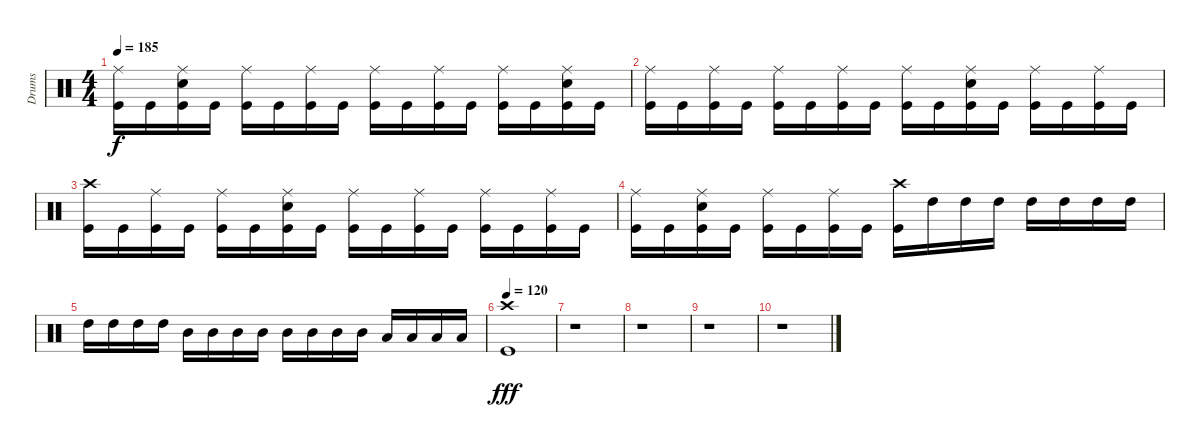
\track ("Drums" "Drums") {instrument percussion}
\staff {score}
\articulation defaults
\ts (4 4)
\tempo 185
\clef neutral
\ks c
("Ride (middle)" "Kick (hit)").16{dy f} "Kick (hit)".16 ("Ride (middle)" "Electric Snare (hit)" "Kick (hit)").16 "Kick (hit)".16 ("Ride (middle)" "Kick (hit)").16 "Kick (hit)".16 ("Ride (middle)" "Kick (hit)").16 "Kick (hit)".16 ("Ride (middle)" "Kick (hit)").16 "Kick (hit)".16 ("Ride (middle)" "Kick (hit)").16 "Kick (hit)".16 ("Ride (middle)" "Kick (hit)").16 "Kick (hit)".16 ("Ride (middle)" "Electric Snare (hit)" "Kick (hit)").16 "Kick (hit)".16 |
("Ride (middle)" "Kick (hit)").16 "Kick (hit)".16 ("Ride (middle)" "Kick (hit)").16 "Kick (hit)".16 ("Ride (middle)" "Kick (hit)").16 "Kick (hit)".16 ("Ride (middle)" "Kick (hit)").16 "Kick (hit)".16 ("Ride (middle)" "Kick (hit)").16 "Kick (hit)".16 ("Ride (middle)" "Electric Snare (hit)" "Kick (hit)").16 "Kick (hit)".16 ("Ride (middle)" "Kick (hit)").16 "Kick (hit)".16 ("Ride (middle)" "Kick (hit)").16 "Kick (hit)".16 |
("Crash high (hit)" "Kick (hit)").16 "Kick (hit)".16 ("Ride (middle)" "Kick (hit)").16 "Kick (hit)".16 ("Ride (middle)" "Kick (hit)").16 "Kick (hit)".16 ("Ride (middle)" "Electric Snare (hit)" "Kick (hit)").16 "Kick (hit)".16 ("Ride (middle)" "Kick (hit)").16 "Kick (hit)".16 ("Ride (middle)" "Kick (hit)").16 "Kick (hit)".16 ("Ride (middle)" "Kick (hit)").16 "Kick (hit)".16 ("Ride (middle)" "Kick (hit)").16 "Kick (hit)".16 |
("Ride (middle)" "Kick (hit)").16 "Kick (hit)".16 ("Ride (middle)" "Electric Snare (hit)" "Kick (hit)").16 "Kick (hit)".16 ("Ride (middle)" "Kick (hit)").16 "Kick (hit)".16 ("Ride (middle)" "Kick (hit)").16 "Kick (hit)".16 ("Crash high (hit)" "Kick (hit)").16 "High Tom (hit)".16 "High Tom (hit)".16 "High Tom (hit)".16 "High Tom (hit)".16 "High Tom (hit)".16 "High Tom (hit)".16 "High Tom (hit)".16 |
"High Tom (hit)".16 "High Tom (hit)".16 "High Tom (hit)".16 "High Tom (hit)".16 "Mid Tom (hit)".16 "Mid Tom (hit)".16 "Mid Tom (hit)".16 "Mid Tom (hit)".16 "Mid Tom (hit)".16 "Mid Tom (hit)".16 "Mid Tom (hit)".16 "Mid Tom (hit)".16 "Low Tom (hit)".16 "Low Tom (hit)".16 "Low Tom (hit)".16 "Low Tom (hit)".16 |
\tempo 120
("Crash high (hit)" "Kick (hit)").1{dy fff} |
r.1 |
r.1 |
r.1 |
r.1
